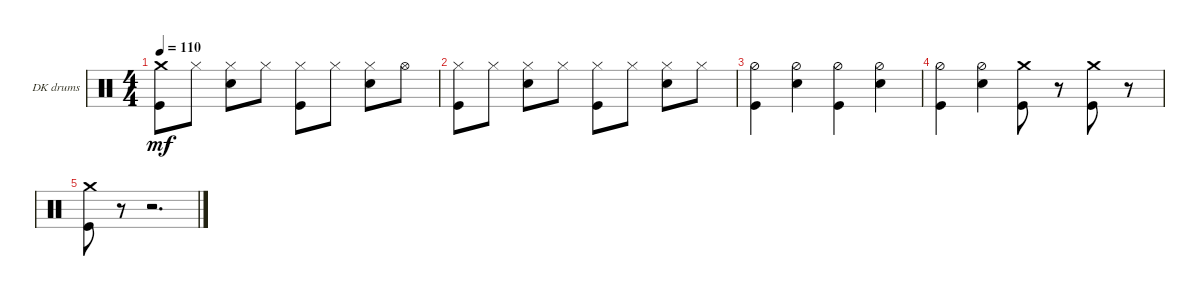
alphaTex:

\defaultSystemsLayout 4
\bracketExtendMode groupsimilarinstruments
\firstSystemTrackNameOrientation horizontal
\otherSystemsTrackNameOrientation horizontal
\track ("Dan Konopka" "DK drums") {instrument percussion}
\staff {score}
\articulation defaults
\ts (4 4)
\tempo 110
\clef neutral
\ks c
("Crash medium (hit)" "Kick (hit)").8{dy mf} "Hi-Hat (closed)".8 ("Hi-Hat (closed)" "Snare (hit) 2").8 "Hi-Hat (closed)".8 ("Hi-Hat (closed)" "Kick (hit)").8 "Hi-Hat (closed)".8 ("Hi-Hat (closed)" "Snare (hit) 2").8 "Hi-Hat (open)".8 |
("Hi-Hat (closed)" "Kick (hit)").8 "Hi-Hat (closed)".8 ("Hi-Hat (closed)" "Snare (hit) 2").8 "Hi-Hat (closed)".8 ("Hi-Hat (closed)" "Kick (hit)").8 "Hi-Hat (closed)".8 ("Hi-Hat (closed)" "Snare (hit) 2").8 "Hi-Hat (closed)".8 |
("Hi-Hat (half)" "Kick (hit)").4 ("Hi-Hat (half)" "Snare (hit) 2").4 ("Hi-Hat (half)" "Kick (hit)").4 ("Hi-Hat (half)" "Snare (hit) 2").4 |
("Hi-Hat (half)" "Kick (hit)").4 ("Hi-Hat (half)" "Snare (hit) 2").4 ("Crash medium (hit)" "Kick (hit)").8 r.8 ("Crash medium (hit)" "Kick (hit)").8 r.8 |
("Crash medium (hit)" "Kick (hit)").8 r.8 r.2{d}
